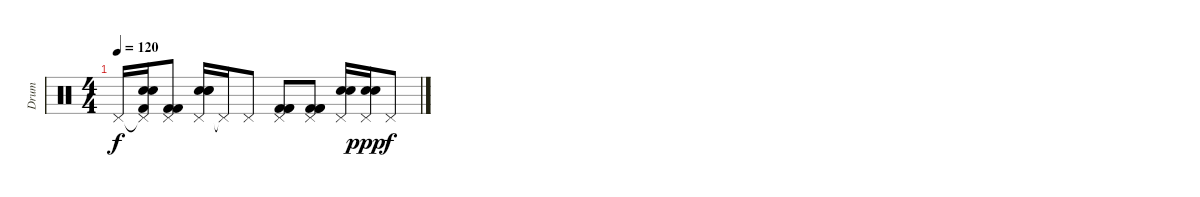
\track ("Drum" "Drum") {instrument percussion}
\staff {score}
\articulation defaults
\ts (4 4)
\tempo 120
\clef neutral
\ks c "Pedal Hi-Hat (hit)".16{dy f}
("Pedal Hi-Hat (hit)"{t} "Snare (hit) 2" "Snare (hit) 2" "Kick (hit) 2").16 ("Pedal Hi-Hat (hit)" "Kick (hit) 2" "Kick (hit) 2").8 ("Pedal Hi-Hat (hit)" "Snare (hit) 2" "Snare (hit) 2" "Snare (hit) 2").16 "Pedal Hi-Hat (hit)"{t}.16 "Pedal Hi-Hat (hit)".8 ("Pedal Hi-Hat (hit)" "Kick (hit) 2" "Kick (hit) 2" "Kick (hit) 2").8 ("Pedal Hi-Hat (hit)" "Kick (hit) 2" "Kick (hit) 2" "Kick (hit) 2").8 ("Pedal Hi-Hat (hit)" "Snare (hit) 2" "Snare (hit) 2").16 ("Pedal Hi-Hat (hit)" "Snare (hit) 2" "Snare (hit) 2").16{dy ppp} "Pedal Hi-Hat (hit)".8{dy f}
